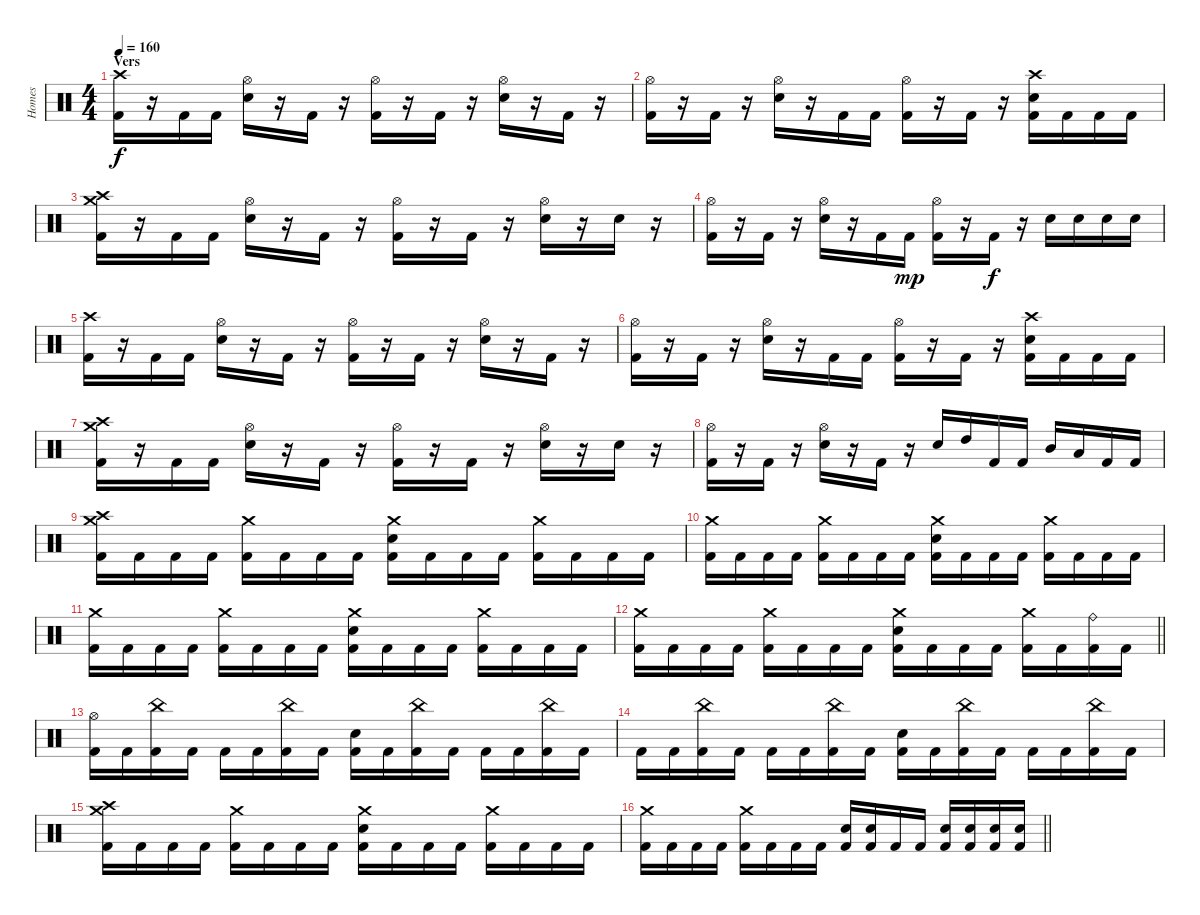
\track ("Homes" "Homes") {instrument percussion}
\staff {score}
\articulation defaults
\ts (4 4)
\section ("" "Vers")
\tempo 160
\clef neutral
\ks c
("Crash high (hit)" "Kick (hit) 2").16{dy f} r.16 "Kick (hit) 2".16 "Kick (hit) 2".16 ("Hi-Hat (open)" "Electric Snare (hit)").16 r.16 "Kick (hit) 2".16 r.16 ("Hi-Hat (open)" "Kick (hit) 2").16 r.16 "Kick (hit) 2".16 r.16 ("Hi-Hat (open)" "Electric Snare (hit)").16 r.16 "Kick (hit) 2".16 r.16 |
("Hi-Hat (open)" "Kick (hit) 2").16 r.16 "Kick (hit) 2".16 r.16 ("Hi-Hat (open)" "Electric Snare (hit)").16 r.16 "Kick (hit) 2".16 "Kick (hit) 2".16 ("Hi-Hat (open)" "Kick (hit) 2").16 r.16 "Kick (hit) 2".16 r.16 ("Crash high (hit)" "Electric Snare (hit)" "Kick (hit) 2").16 "Kick (hit) 2".16 "Kick (hit) 2".16 "Kick (hit) 2".16 |
("Crash high (hit)" "Crash medium (hit)" "Kick (hit) 2").16 r.16 "Kick (hit) 2".16 "Kick (hit) 2".16 ("Hi-Hat (open)" "Electric Snare (hit)").16 r.16 "Kick (hit) 2".16 r.16 ("Hi-Hat (open)" "Kick (hit) 2").16 r.16 "Kick (hit) 2".16 r.16 ("Hi-Hat (open)" "Electric Snare (hit)").16 r.16 "Electric Snare (hit)".16 r.16 |
("Hi-Hat (open)" "Kick (hit) 2").16 r.16 "Kick (hit) 2".16 r.16 ("Hi-Hat (open)" "Electric Snare (hit)").16 r.16 "Kick (hit) 2".16 "Kick (hit) 2".16{dy mp} ("Hi-Hat (open)" "Kick (hit) 2").16 r.16 "Kick (hit) 2".16{dy f} r.16 "Electric Snare (hit)".16 "Electric Snare (hit)".16 "Electric Snare (hit)".16 "Electric Snare (hit)".16 |
("Crash high (hit)" "Kick (hit) 2").16 r.16 "Kick (hit) 2".16 "Kick (hit) 2".16 ("Hi-Hat (open)" "Electric Snare (hit)").16 r.16 "Kick (hit) 2".16 r.16 ("Hi-Hat (open)" "Kick (hit) 2").16 r.16 "Kick (hit) 2".16 r.16 ("Hi-Hat (open)" "Electric Snare (hit)").16 r.16 "Kick (hit) 2".16 r.16 |
("Hi-Hat (open)" "Kick (hit) 2").16 r.16 "Kick (hit) 2".16 r.16 ("Hi-Hat (open)" "Electric Snare (hit)").16 r.16 "Kick (hit) 2".16 "Kick (hit) 2".16 ("Hi-Hat (open)" "Kick (hit) 2").16 r.16 "Kick (hit) 2".16 r.16 ("Crash high (hit)" "Electric Snare (hit)" "Kick (hit) 2").16 "Kick (hit) 2".16 "Kick (hit) 2".16 "Kick (hit) 2".16 |
("Crash high (hit)" "Crash medium (hit)" "Kick (hit) 2").16 r.16 "Kick (hit) 2".16 "Kick (hit) 2".16 ("Hi-Hat (open)" "Electric Snare (hit)").16 r.16 "Kick (hit) 2".16 r.16 ("Hi-Hat (open)" "Kick (hit) 2").16 r.16 "Kick (hit) 2".16 r.16 ("Hi-Hat (open)" "Electric Snare (hit)").16 r.16 "Electric Snare (hit)".16 r.16 |
("Hi-Hat (open)" "Kick (hit) 2").16 r.16 "Kick (hit) 2".16 r.16 ("Hi-Hat (open)" "Electric Snare (hit)").16 r.16 "Kick (hit) 2".16 r.16 "Electric Snare (hit)".16 "High Tom (hit)".16 "Kick (hit) 2".16 "Kick (hit) 2".16 "Mid Tom (hit)".16 "Low Tom (hit)".16 "Kick (hit) 2".16 "Kick (hit) 2".16 |
("Crash high (hit)" "Crash medium (hit)" "Kick (hit) 2").16 "Kick (hit) 2".16 "Kick (hit) 2".16 "Kick (hit) 2".16 ("Crash medium (hit)" "Kick (hit) 2").16 "Kick (hit) 2".16 "Kick (hit) 2".16 "Kick (hit) 2".16 ("Crash medium (hit)" "Electric Snare (hit)" "Kick (hit) 2").16 "Kick (hit) 2".16 "Kick (hit) 2".16 "Kick (hit) 2".16 ("Crash medium (hit)" "Kick (hit) 2").16 "Kick (hit) 2".16 "Kick (hit) 2".16 "Kick (hit) 2".16 |
("Crash medium (hit)" "Kick (hit) 2").16 "Kick (hit) 2".16 "Kick (hit) 2".16 "Kick (hit) 2".16 ("Crash medium (hit)" "Kick (hit) 2").16 "Kick (hit) 2".16 "Kick (hit) 2".16 "Kick (hit) 2".16 ("Crash medium (hit)" "Electric Snare (hit)" "Kick (hit) 2").16 "Kick (hit) 2".16 "Kick (hit) 2".16 "Kick (hit) 2".16 ("Crash medium (hit)" "Kick (hit) 2").16 "Kick (hit) 2".16 "Kick (hit) 2".16 "Kick (hit) 2".16 |
("Crash medium (hit)" "Kick (hit) 2").16 "Kick (hit) 2".16 "Kick (hit) 2".16 "Kick (hit) 2".16 ("Crash medium (hit)" "Kick (hit) 2").16 "Kick (hit) 2".16 "Kick (hit) 2".16 "Kick (hit) 2".16 ("Crash medium (hit)" "Electric Snare (hit)" "Kick (hit) 2").16 "Kick (hit) 2".16 "Kick (hit) 2".16 "Kick (hit) 2".16 ("Crash medium (hit)" "Kick (hit) 2").16 "Kick (hit) 2".16 "Kick (hit) 2".16 "Kick (hit) 2".16 |
\barLineRight lightlight
("Crash medium (hit)" "Kick (hit) 2").16 "Kick (hit) 2".16 "Kick (hit) 2".16 "Kick (hit) 2".16 ("Crash medium (hit)" "Kick (hit) 2").16 "Kick (hit) 2".16 "Kick (hit) 2".16 "Kick (hit) 2".16 ("Crash medium (hit)" "Electric Snare (hit)" "Kick (hit) 2").16 "Kick (hit) 2".16 "Kick (hit) 2".16 "Kick (hit) 2".16 ("Crash medium (hit)" "Kick (hit) 2").16 "Kick (hit) 2".16 ("Ride (bell)" "Kick (hit) 2").16 "Kick (hit) 2".16 |
("Hi-Hat (open)" "Kick (hit) 2").16 "Kick (hit) 2".16 ("China (hit)" "Kick (hit) 2").16 "Kick (hit) 2".16 "Kick (hit) 2".16 "Kick (hit) 2".16 ("China (hit)" "Kick (hit) 2").16 "Kick (hit) 2".16 ("Electric Snare (hit)" "Kick (hit) 2").16 "Kick (hit) 2".16 ("China (hit)" "Kick (hit) 2").16 "Kick (hit) 2".16 "Kick (hit) 2".16 "Kick (hit) 2".16 ("China (hit)" "Kick (hit) 2").16 "Kick (hit) 2".16 |
"Kick (hit) 2".16 "Kick (hit) 2".16 ("China (hit)" "Kick (hit) 2").16 "Kick (hit) 2".16 "Kick (hit) 2".16 "Kick (hit) 2".16 ("China (hit)" "Kick (hit) 2").16 "Kick (hit) 2".16 ("Electric Snare (hit)" "Kick (hit) 2").16 "Kick (hit) 2".16 ("China (hit)" "Kick (hit) 2").16 "Kick (hit) 2".16 "Kick (hit) 2".16 "Kick (hit) 2".16 ("China (hit)" "Kick (hit) 2").16 "Kick (hit) 2".16 |
("Crash medium (hit)" "Crash high (hit)" "Kick (hit) 2").16 "Kick (hit) 2".16 "Kick (hit) 2".16 "Kick (hit) 2".16 ("Crash medium (hit)" "Kick (hit) 2").16 "Kick (hit) 2".16 "Kick (hit) 2".16 "Kick (hit) 2".16 ("Crash medium (hit)" "Electric Snare (hit)" "Kick (hit) 2").16 "Kick (hit) 2".16 "Kick (hit) 2".16 "Kick (hit) 2".16 ("Crash medium (hit)" "Kick (hit) 2").16 "Kick (hit) 2".16 "Kick (hit) 2".16 "Kick (hit) 2".16 |
\barLineRight lightlight
("Crash medium (hit)" "Kick (hit) 2").16 "Kick (hit) 2".16 "Kick (hit) 2".16 "Kick (hit) 2".16 ("Crash medium (hit)" "Kick (hit) 2").16 "Kick (hit) 2".16 "Kick (hit) 2".16 "Kick (hit) 2".16 ("Electric Snare (hit)" "Kick (hit) 2").16 ("Electric Snare (hit)" "Kick (hit) 2").16 "Kick (hit) 2".16 "Kick (hit) 2".16 ("Electric Snare (hit)" "Kick (hit) 2").16 ("Electric Snare (hit)" "Kick (hit) 2").16 ("Electric Snare (hit)" "Kick (hit) 2").16 ("Electric Snare (hit)" "Kick (hit) 2").16
